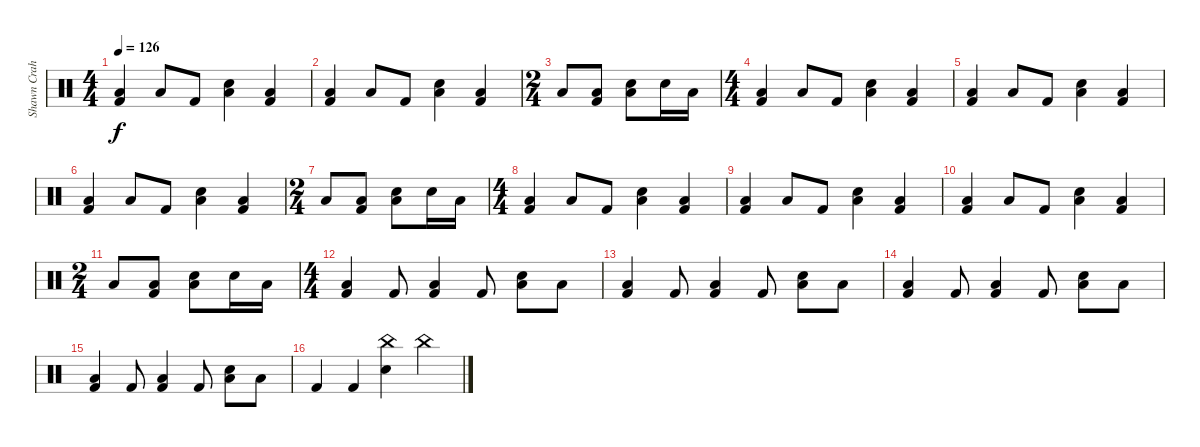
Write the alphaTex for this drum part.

\track ("Shawn Crahan" "Shawn Crah") {instrument percussion}
\staff {score}
\articulation defaults
\ts (4 4)
\tempo 126
\clef neutral
\ks c
("Low Tom (hit)" "Kick (hit) 2").4{dy f} "Low Tom (hit)".8 "Kick (hit) 2".8 ("Low Tom (hit)" "Snare (hit) 2").4 ("Low Tom (hit)" "Kick (hit) 2").4 |
("Low Tom (hit)" "Kick (hit) 2").4 "Low Tom (hit)".8 "Kick (hit) 2".8 ("Low Tom (hit)" "Snare (hit) 2").4 ("Low Tom (hit)" "Kick (hit) 2").4 |
\ts (2 4)
"Low Tom (hit)".8 ("Low Tom (hit)" "Kick (hit) 2").8 ("Low Tom (hit)" "Snare (hit) 2").8 "Snare (hit) 2".16 "Low Tom (hit)".16 |
\ts (4 4)
("Low Tom (hit)" "Kick (hit) 2").4 "Low Tom (hit)".8 "Kick (hit) 2".8 ("Low Tom (hit)" "Electric Snare (hit)").4 ("Low Tom (hit)" "Kick (hit) 2").4 |
("Low Tom (hit)" "Kick (hit) 2").4 "Low Tom (hit)".8 "Kick (hit) 2".8 ("Low Tom (hit)" "Snare (hit) 2").4 ("Low Tom (hit)" "Kick (hit) 2").4 |
("Low Tom (hit)" "Kick (hit) 2").4 "Low Tom (hit)".8 "Kick (hit) 2".8 ("Low Tom (hit)" "Snare (hit) 2").4 ("Low Tom (hit)" "Kick (hit) 2").4 |
\ts (2 4)
"Low Tom (hit)".8 ("Low Tom (hit)" "Kick (hit) 2").8 ("Low Tom (hit)" "Snare (hit) 2").8 "Snare (hit) 2".16 "Low Tom (hit)".16 |
\ts (4 4)
("Low Tom (hit)" "Kick (hit) 2").4 "Low Tom (hit)".8 "Kick (hit) 2".8 ("Low Tom (hit)" "Electric Snare (hit)").4 ("Low Tom (hit)" "Kick (hit) 2").4 |
("Low Tom (hit)" "Kick (hit) 2").4 "Low Tom (hit)".8 "Kick (hit) 2".8 ("Low Tom (hit)" "Snare (hit) 2").4 ("Low Tom (hit)" "Kick (hit) 2").4 |
("Low Tom (hit)" "Kick (hit) 2").4 "Low Tom (hit)".8 "Kick (hit) 2".8 ("Low Tom (hit)" "Snare (hit) 2").4 ("Low Tom (hit)" "Kick (hit) 2").4 |
\ts (2 4)
"Low Tom (hit)".8 ("Low Tom (hit)" "Kick (hit) 2").8 ("Low Tom (hit)" "Snare (hit) 2").8 "Snare (hit) 2".16 "Low Tom (hit)".16 |
\ts (4 4)
("Low Tom (hit)" "Kick (hit) 2").4 "Kick (hit) 2".8 ("Low Tom (hit)" "Kick (hit) 2").4 "Kick (hit) 2".8 ("Low Tom (hit)" "Snare (hit) 2").8 "Low Tom (hit)".8 |
("Low Tom (hit)" "Kick (hit) 2").4 "Kick (hit) 2".8 ("Low Tom (hit)" "Kick (hit) 2").4 "Kick (hit) 2".8 ("Low Tom (hit)" "Snare (hit) 2").8 "Low Tom (hit)".8 |
("Low Tom (hit)" "Kick (hit) 2").4 "Kick (hit) 2".8 ("Low Tom (hit)" "Kick (hit) 2").4 "Kick (hit) 2".8 ("Low Tom (hit)" "Snare (hit) 2").8 "Low Tom (hit)".8 |
("Low Tom (hit)" "Kick (hit) 2").4 "Kick (hit) 2".8 ("Low Tom (hit)" "Kick (hit) 2").4 "Kick (hit) 2".8 ("Low Tom (hit)" "Snare (hit) 2").8 "Low Tom (hit)".8 |
"Kick (hit) 2".4 "Kick (hit) 2".4 ("China (hit)" "Snare (hit) 2").4 "China (hit)".4
